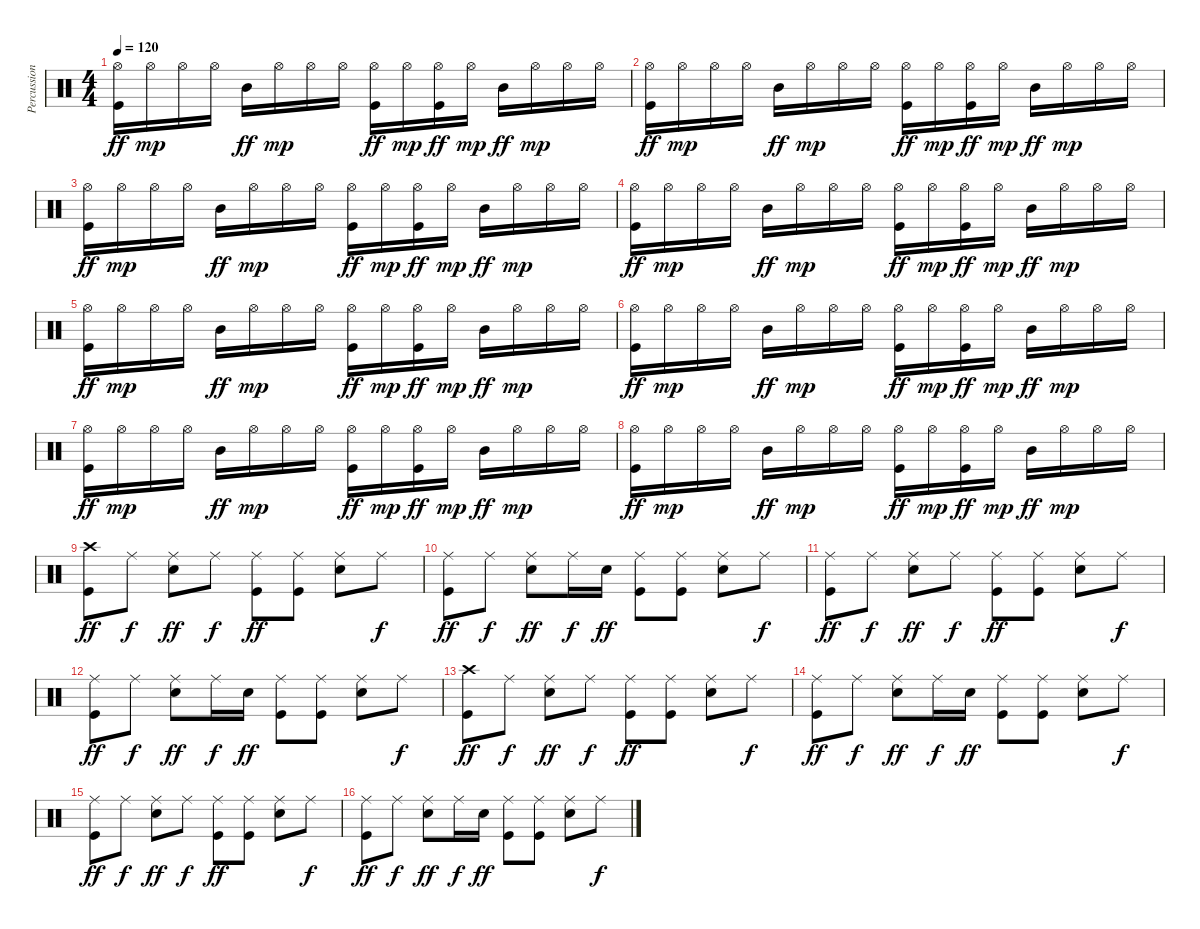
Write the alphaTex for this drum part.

\track ("Percussion" "Percussion") {instrument percussion}
\staff {score}
\articulation defaults
\ts (4 4)
\tempo 120
\clef neutral
\ks c
("Hi-Hat (open)" "Kick (hit)").16{dy ff} "Hi-Hat (open)".16{dy mp} "Hi-Hat (open)".16 "Hi-Hat (open)".16 "Mid Tom (hit)".16{dy ff} "Hi-Hat (open)".16{dy mp} "Hi-Hat (open)".16 "Hi-Hat (open)".16 ("Hi-Hat (open)" "Kick (hit)").16{dy ff} "Hi-Hat (open)".16{dy mp} ("Hi-Hat (open)" "Kick (hit)").16{dy ff} "Hi-Hat (open)".16{dy mp} "Mid Tom (hit)".16{dy ff} "Hi-Hat (open)".16{dy mp} "Hi-Hat (open)".16 "Hi-Hat (open)".16 |
("Hi-Hat (open)" "Kick (hit)").16{dy ff} "Hi-Hat (open)".16{dy mp} "Hi-Hat (open)".16 "Hi-Hat (open)".16 "Mid Tom (hit)".16{dy ff} "Hi-Hat (open)".16{dy mp} "Hi-Hat (open)".16 "Hi-Hat (open)".16 ("Hi-Hat (open)" "Kick (hit)").16{dy ff} "Hi-Hat (open)".16{dy mp} ("Hi-Hat (open)" "Kick (hit)").16{dy ff} "Hi-Hat (open)".16{dy mp} "Mid Tom (hit)".16{dy ff} "Hi-Hat (open)".16{dy mp} "Hi-Hat (open)".16 "Hi-Hat (open)".16 |
("Hi-Hat (open)" "Kick (hit)").16{dy ff} "Hi-Hat (open)".16{dy mp} "Hi-Hat (open)".16 "Hi-Hat (open)".16 "Mid Tom (hit)".16{dy ff} "Hi-Hat (open)".16{dy mp} "Hi-Hat (open)".16 "Hi-Hat (open)".16 ("Hi-Hat (open)" "Kick (hit)").16{dy ff} "Hi-Hat (open)".16{dy mp} ("Hi-Hat (open)" "Kick (hit)").16{dy ff} "Hi-Hat (open)".16{dy mp} "Mid Tom (hit)".16{dy ff} "Hi-Hat (open)".16{dy mp} "Hi-Hat (open)".16 "Hi-Hat (open)".16 |
("Hi-Hat (open)" "Kick (hit)").16{dy ff} "Hi-Hat (open)".16{dy mp} "Hi-Hat (open)".16 "Hi-Hat (open)".16 "Mid Tom (hit)".16{dy ff} "Hi-Hat (open)".16{dy mp} "Hi-Hat (open)".16 "Hi-Hat (open)".16 ("Hi-Hat (open)" "Kick (hit)").16{dy ff} "Hi-Hat (open)".16{dy mp} ("Hi-Hat (open)" "Kick (hit)").16{dy ff} "Hi-Hat (open)".16{dy mp} "Mid Tom (hit)".16{dy ff} "Hi-Hat (open)".16{dy mp} "Hi-Hat (open)".16 "Hi-Hat (open)".16 |
("Hi-Hat (open)" "Kick (hit)").16{dy ff} "Hi-Hat (open)".16{dy mp} "Hi-Hat (open)".16 "Hi-Hat (open)".16 "Mid Tom (hit)".16{dy ff} "Hi-Hat (open)".16{dy mp} "Hi-Hat (open)".16 "Hi-Hat (open)".16 ("Hi-Hat (open)" "Kick (hit)").16{dy ff} "Hi-Hat (open)".16{dy mp} ("Hi-Hat (open)" "Kick (hit)").16{dy ff} "Hi-Hat (open)".16{dy mp} "Mid Tom (hit)".16{dy ff} "Hi-Hat (open)".16{dy mp} "Hi-Hat (open)".16 "Hi-Hat (open)".16 |
("Hi-Hat (open)" "Kick (hit)").16{dy ff} "Hi-Hat (open)".16{dy mp} "Hi-Hat (open)".16 "Hi-Hat (open)".16 "Mid Tom (hit)".16{dy ff} "Hi-Hat (open)".16{dy mp} "Hi-Hat (open)".16 "Hi-Hat (open)".16 ("Hi-Hat (open)" "Kick (hit)").16{dy ff} "Hi-Hat (open)".16{dy mp} ("Hi-Hat (open)" "Kick (hit)").16{dy ff} "Hi-Hat (open)".16{dy mp} "Mid Tom (hit)".16{dy ff} "Hi-Hat (open)".16{dy mp} "Hi-Hat (open)".16 "Hi-Hat (open)".16 |
("Hi-Hat (open)" "Kick (hit)").16{dy ff} "Hi-Hat (open)".16{dy mp} "Hi-Hat (open)".16 "Hi-Hat (open)".16 "Mid Tom (hit)".16{dy ff} "Hi-Hat (open)".16{dy mp} "Hi-Hat (open)".16 "Hi-Hat (open)".16 ("Hi-Hat (open)" "Kick (hit)").16{dy ff} "Hi-Hat (open)".16{dy mp} ("Hi-Hat (open)" "Kick (hit)").16{dy ff} "Hi-Hat (open)".16{dy mp} "Mid Tom (hit)".16{dy ff} "Hi-Hat (open)".16{dy mp} "Hi-Hat (open)".16 "Hi-Hat (open)".16 |
("Hi-Hat (open)" "Kick (hit)").16{dy ff} "Hi-Hat (open)".16{dy mp} "Hi-Hat (open)".16 "Hi-Hat (open)".16 "Mid Tom (hit)".16{dy ff} "Hi-Hat (open)".16{dy mp} "Hi-Hat (open)".16 "Hi-Hat (open)".16 ("Hi-Hat (open)" "Kick (hit)").16{dy ff} "Hi-Hat (open)".16{dy mp} ("Hi-Hat (open)" "Kick (hit)").16{dy ff} "Hi-Hat (open)".16{dy mp} "Mid Tom (hit)".16{dy ff} "Hi-Hat (open)".16{dy mp} "Hi-Hat (open)".16 "Hi-Hat (open)".16 |
("Crash high (hit)" "Kick (hit)").8{dy ff} "Ride (middle)".8{dy f} ("Ride (middle)" "Snare (hit) 2").8{dy ff} "Ride (middle)".8{dy f} ("Ride (middle)" "Kick (hit)").8{dy ff} ("Ride (middle)" "Kick (hit)").8 ("Ride (middle)" "Snare (hit) 2").8 "Ride (middle)".8{dy f} |
("Ride (middle)" "Kick (hit)").8{dy ff} "Ride (middle)".8{dy f} ("Ride (middle)" "Snare (hit) 2").8{dy ff} "Ride (middle)".16{dy f} "Snare (hit) 2".16{dy ff} ("Ride (middle)" "Kick (hit)").8 ("Ride (middle)" "Kick (hit)").8 ("Ride (middle)" "Snare (hit) 2").8 "Ride (middle)".8{dy f} |
("Ride (middle)" "Kick (hit)").8{dy ff} "Ride (middle)".8{dy f} ("Ride (middle)" "Snare (hit) 2").8{dy ff} "Ride (middle)".8{dy f} ("Ride (middle)" "Kick (hit)").8{dy ff} ("Ride (middle)" "Kick (hit)").8 ("Ride (middle)" "Snare (hit) 2").8 "Ride (middle)".8{dy f} |
("Ride (middle)" "Kick (hit)").8{dy ff} "Ride (middle)".8{dy f} ("Ride (middle)" "Snare (hit) 2").8{dy ff} "Ride (middle)".16{dy f} "Snare (hit) 2".16{dy ff} ("Ride (middle)" "Kick (hit)").8 ("Ride (middle)" "Kick (hit)").8 ("Ride (middle)" "Snare (hit) 2").8 "Ride (middle)".8{dy f} |
("Crash high (hit)" "Kick (hit)").8{dy ff} "Ride (middle)".8{dy f} ("Ride (middle)" "Snare (hit) 2").8{dy ff} "Ride (middle)".8{dy f} ("Ride (middle)" "Kick (hit)").8{dy ff} ("Ride (middle)" "Kick (hit)").8 ("Ride (middle)" "Snare (hit) 2").8 "Ride (middle)".8{dy f} |
("Ride (middle)" "Kick (hit)").8{dy ff} "Ride (middle)".8{dy f} ("Ride (middle)" "Snare (hit) 2").8{dy ff} "Ride (middle)".16{dy f} "Snare (hit) 2".16{dy ff} ("Ride (middle)" "Kick (hit)").8 ("Ride (middle)" "Kick (hit)").8 ("Ride (middle)" "Snare (hit) 2").8 "Ride (middle)".8{dy f} |
("Ride (middle)" "Kick (hit)").8{dy ff} "Ride (middle)".8{dy f} ("Ride (middle)" "Snare (hit) 2").8{dy ff} "Ride (middle)".8{dy f} ("Ride (middle)" "Kick (hit)").8{dy ff} ("Ride (middle)" "Kick (hit)").8 ("Ride (middle)" "Snare (hit) 2").8 "Ride (middle)".8{dy f} |
("Ride (middle)" "Kick (hit)").8{dy ff} "Ride (middle)".8{dy f} ("Ride (middle)" "Snare (hit) 2").8{dy ff} "Ride (middle)".16{dy f} "Snare (hit) 2".16{dy ff} ("Ride (middle)" "Kick (hit)").8 ("Ride (middle)" "Kick (hit)").8 ("Ride (middle)" "Snare (hit) 2").8 "Ride (middle)".8{dy f}
